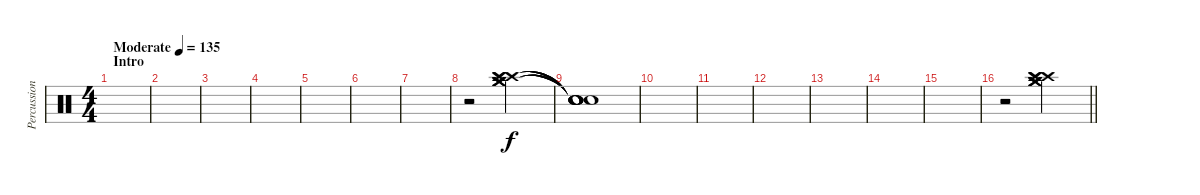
\track ("Percussion" "Percussion") {instrument percussion}
\staff {score}
\articulation defaults
\ts (4 4)
\section ("" "Intro")
\tempo (135 "Moderate")
\clef neutral
\ks c
|
|
|
|
|
|
|
r.2 ("Crash medium (hit)" "Crash medium (hit)" "Crash medium (hit)" "Crash high (hit)" "Crash high (hit)" "Crash high (hit)").2 |
("Snare (hit)"{t} "Snare (hit)"{t} "Snare (hit)"{t} "Snare (hit)"{t} "Snare (hit)"{t} "Snare (hit)"{t}).1 |
|
|
|
|
|
|
\barLineRight lightlight
r.2 ("Crash medium (hit)" "Crash medium (hit)" "Crash medium (hit)" "Crash high (hit)" "Crash high (hit)" "Crash high (hit)").2
